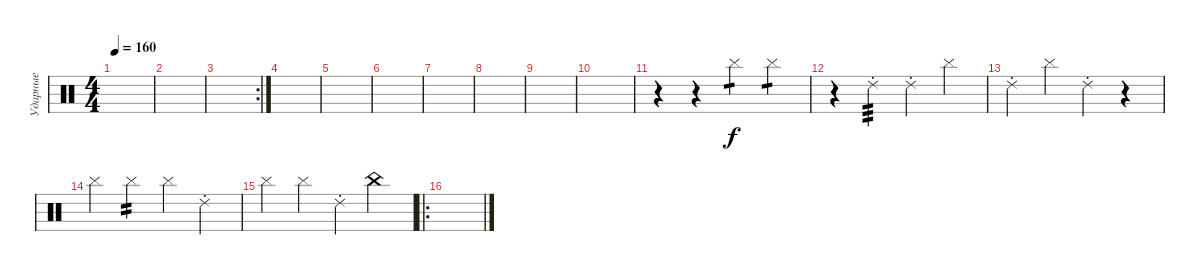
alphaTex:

\track ("Ударные" "Ударные") {instrument percussion}
\staff {score}
\articulation defaults
\ts (4 4)
\tempo 160
\clef neutral
\ks c
|
|
\rc 2
|
|
|
|
|
|
|
|
r.4 r.4 "Cymbal (hit)".4{tp 1} "Cymbal (hit)".4{tp 1} |
r.4 "Ride (choke) 2".4{tp 3} "Ride (choke) 2".4 "Cymbal (hit)".4 |
"Ride (choke) 2".4 "Cymbal (hit)".4 "Ride (choke) 2".4 r.4 |
"Cymbal (hit)".4 "Cymbal (hit)".4{tp 2} "Cymbal (hit)".4 "Ride (choke) 2".4 |
"Cymbal (hit)".4 "Cymbal (hit)".4 "Ride (choke) 2".4 "China (hit)".4 |
\ro
